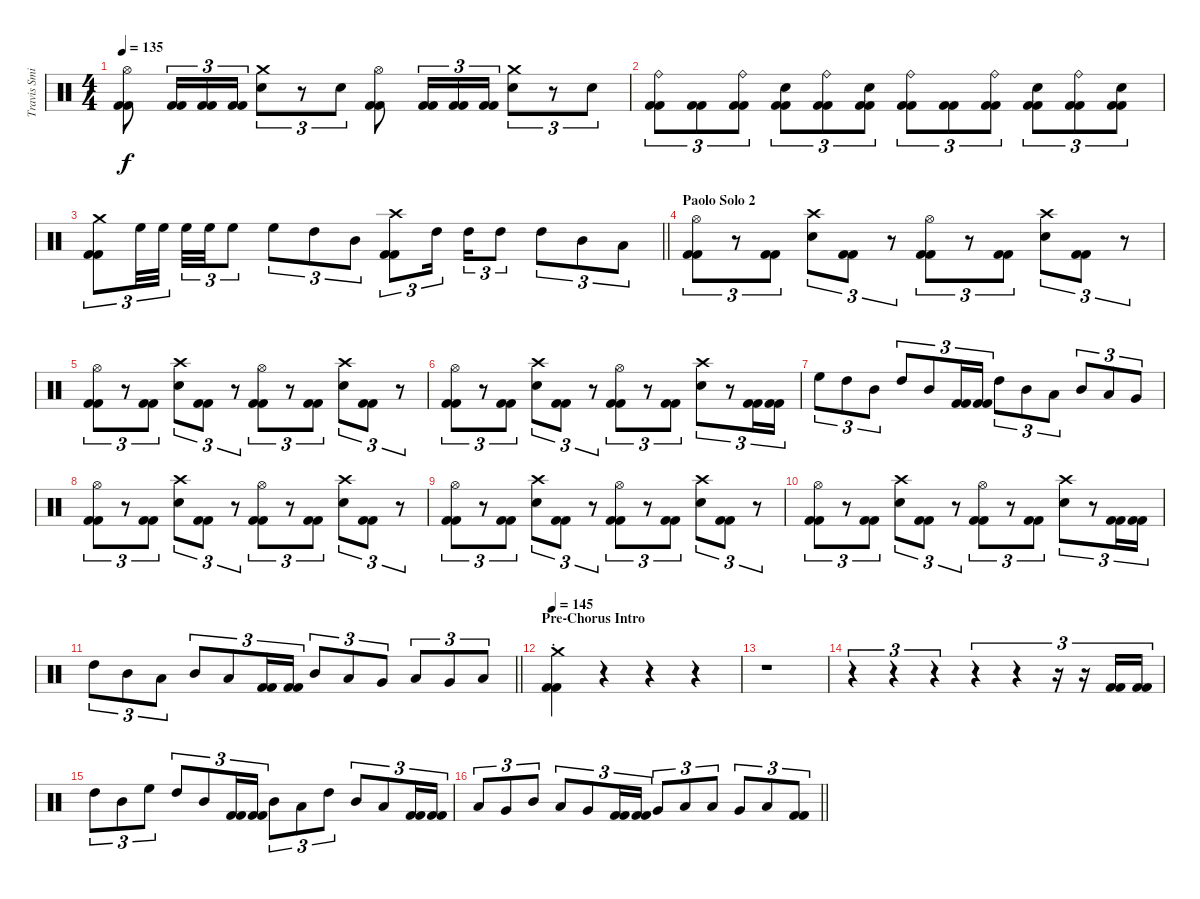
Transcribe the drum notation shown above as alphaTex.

\track ("Travis Smith" "Travis Smi") {instrument percussion}
\staff {score}
\articulation defaults
\ts (4 4)
\tempo 135
\clef neutral
\ks c
("Hi-Hat (open)" "Kick (hit) 2" "Kick (hit) 2").8{dy f} ("Kick (hit) 2" "Kick (hit) 2").16{tu (3 2)} ("Kick (hit) 2" "Kick (hit) 2").16{tu (3 2)} ("Kick (hit) 2" "Kick (hit) 2").16{tu (3 2)} ("Crash medium (hit)" "Electric Snare (hit)").8{tu (3 2)} r.8{tu (3 2)} "Electric Snare (hit)".8{tu (3 2)} ("Hi-Hat (open)" "Kick (hit) 2" "Kick (hit) 2").8 ("Kick (hit) 2" "Kick (hit) 2").16{tu (3 2)} ("Kick (hit) 2" "Kick (hit) 2").16{tu (3 2)} ("Kick (hit) 2" "Kick (hit) 2").16{tu (3 2)} ("Crash medium (hit)" "Electric Snare (hit)").8{tu (3 2)} r.8{tu (3 2)} "Electric Snare (hit)".8{tu (3 2)} |
("Ride (bell)" "Kick (hit) 2" "Kick (hit) 2").8{tu (3 2)} ("Kick (hit) 2" "Kick (hit) 2").8{tu (3 2)} ("Ride (bell)" "Kick (hit) 2" "Kick (hit) 2").8{tu (3 2)} ("Electric Snare (hit)" "Kick (hit) 2" "Kick (hit) 2").8{tu (3 2)} ("Ride (bell)" "Kick (hit) 2" "Kick (hit) 2").8{tu (3 2)} ("Electric Snare (hit)" "Kick (hit) 2" "Kick (hit) 2").8{tu (3 2)} ("Ride (bell)" "Kick (hit) 2" "Kick (hit) 2").8{tu (3 2)} ("Kick (hit) 2" "Kick (hit) 2").8{tu (3 2)} ("Ride (bell)" "Kick (hit) 2" "Kick (hit) 2").8{tu (3 2)} ("Electric Snare (hit)" "Kick (hit) 2" "Kick (hit) 2").8{tu (3 2)} ("Ride (bell)" "Kick (hit) 2" "Kick (hit) 2").8{tu (3 2)} ("Electric Snare (hit)" "Kick (hit) 2" "Kick (hit) 2").8{tu (3 2)} |
\barLineRight lightlight
("Crash medium (hit)" "Kick (hit) 2" "Kick (hit) 2").8{tu (3 2)} "High Floor Tom (hit)".32{tu (3 2)} "High Floor Tom (hit)".32{tu (3 2) beam splitsecondary} "High Floor Tom (hit)".32{tu (3 2)} "High Floor Tom (hit)".32{tu (3 2)} "High Floor Tom (hit)".8{tu (3 2)} "High Floor Tom (hit)".8{tu (3 2)} "High Tom (hit)".8{tu (3 2)} "Mid Tom (hit)".8{tu (3 2)} ("Crash high (hit)" "Kick (hit) 2" "Kick (hit) 2").8{tu (3 2)} "High Tom (hit)".16{tu (3 2) beam splitsecondary} "High Tom (hit)".16{tu (3 2)} "High Tom (hit)".8{tu (3 2)} "High Tom (hit)".8{tu (3 2)} "Mid Tom (hit)".8{tu (3 2)} "Low Tom (hit)".8{tu (3 2)} |
\section ("" "Paolo Solo 2")
("Hi-Hat (open)" "Kick (hit) 2" "Kick (hit) 2").8{tu (3 2)} r.8{tu (3 2)} ("Kick (hit) 2" "Kick (hit) 2").8{tu (3 2)} ("Crash high (hit)" "Electric Snare (hit)").8{tu (3 2)} ("Kick (hit) 2" "Kick (hit) 2").8{tu (3 2)} r.8{tu (3 2)} ("Hi-Hat (open)" "Kick (hit) 2" "Kick (hit) 2").8{tu (3 2)} r.8{tu (3 2)} ("Kick (hit) 2" "Kick (hit) 2").8{tu (3 2)} ("Crash high (hit)" "Electric Snare (hit)").8{tu (3 2)} ("Kick (hit) 2" "Kick (hit) 2").8{tu (3 2)} r.8{tu (3 2)} |
("Hi-Hat (open)" "Kick (hit) 2" "Kick (hit) 2").8{tu (3 2)} r.8{tu (3 2)} ("Kick (hit) 2" "Kick (hit) 2").8{tu (3 2)} ("Crash high (hit)" "Electric Snare (hit)").8{tu (3 2)} ("Kick (hit) 2" "Kick (hit) 2").8{tu (3 2)} r.8{tu (3 2)} ("Hi-Hat (open)" "Kick (hit) 2" "Kick (hit) 2").8{tu (3 2)} r.8{tu (3 2)} ("Kick (hit) 2" "Kick (hit) 2").8{tu (3 2)} ("Crash high (hit)" "Electric Snare (hit)").8{tu (3 2)} ("Kick (hit) 2" "Kick (hit) 2").8{tu (3 2)} r.8{tu (3 2)} |
("Hi-Hat (open)" "Kick (hit) 2" "Kick (hit) 2").8{tu (3 2)} r.8{tu (3 2)} ("Kick (hit) 2" "Kick (hit) 2").8{tu (3 2)} ("Crash high (hit)" "Electric Snare (hit)").8{tu (3 2)} ("Kick (hit) 2" "Kick (hit) 2").8{tu (3 2)} r.8{tu (3 2)} ("Hi-Hat (open)" "Kick (hit) 2" "Kick (hit) 2").8{tu (3 2)} r.8{tu (3 2)} ("Kick (hit) 2" "Kick (hit) 2").8{tu (3 2)} ("Crash high (hit)" "Electric Snare (hit)").8{tu (3 2)} r.8{tu (3 2)} ("Kick (hit) 2" "Kick (hit) 2").16{tu (3 2)} ("Kick (hit) 2" "Kick (hit) 2").16{tu (3 2)} |
"High Floor Tom (hit)".8{tu (3 2)} "High Tom (hit)".8{tu (3 2)} "Mid Tom (hit)".8{tu (3 2)} "High Tom (hit)".8{tu (3 2)} "Mid Tom (hit)".8{tu (3 2)} ("Kick (hit) 2" "Kick (hit) 2").16{tu (3 2)} ("Kick (hit) 2" "Kick (hit) 2").16{tu (3 2)} "High Tom (hit)".8{tu (3 2)} "Mid Tom (hit)".8{tu (3 2)} "Low Tom (hit)".8{tu (3 2)} "Mid Tom (hit)".8{tu (3 2)} "Low Tom (hit)".8{tu (3 2)} "Very Low Tom (hit)".8{tu (3 2)} |
("Hi-Hat (open)" "Kick (hit) 2" "Kick (hit) 2").8{tu (3 2)} r.8{tu (3 2)} ("Kick (hit) 2" "Kick (hit) 2").8{tu (3 2)} ("Crash high (hit)" "Electric Snare (hit)").8{tu (3 2)} ("Kick (hit) 2" "Kick (hit) 2").8{tu (3 2)} r.8{tu (3 2)} ("Hi-Hat (open)" "Kick (hit) 2" "Kick (hit) 2").8{tu (3 2)} r.8{tu (3 2)} ("Kick (hit) 2" "Kick (hit) 2").8{tu (3 2)} ("Crash high (hit)" "Electric Snare (hit)").8{tu (3 2)} ("Kick (hit) 2" "Kick (hit) 2").8{tu (3 2)} r.8{tu (3 2)} |
("Hi-Hat (open)" "Kick (hit) 2" "Kick (hit) 2").8{tu (3 2)} r.8{tu (3 2)} ("Kick (hit) 2" "Kick (hit) 2").8{tu (3 2)} ("Crash high (hit)" "Electric Snare (hit)").8{tu (3 2)} ("Kick (hit) 2" "Kick (hit) 2").8{tu (3 2)} r.8{tu (3 2)} ("Hi-Hat (open)" "Kick (hit) 2" "Kick (hit) 2").8{tu (3 2)} r.8{tu (3 2)} ("Kick (hit) 2" "Kick (hit) 2").8{tu (3 2)} ("Crash high (hit)" "Electric Snare (hit)").8{tu (3 2)} ("Kick (hit) 2" "Kick (hit) 2").8{tu (3 2)} r.8{tu (3 2)} |
("Hi-Hat (open)" "Kick (hit) 2" "Kick (hit) 2").8{tu (3 2)} r.8{tu (3 2)} ("Kick (hit) 2" "Kick (hit) 2").8{tu (3 2)} ("Crash high (hit)" "Electric Snare (hit)").8{tu (3 2)} ("Kick (hit) 2" "Kick (hit) 2").8{tu (3 2)} r.8{tu (3 2)} ("Hi-Hat (open)" "Kick (hit) 2" "Kick (hit) 2").8{tu (3 2)} r.8{tu (3 2)} ("Kick (hit) 2" "Kick (hit) 2").8{tu (3 2)} ("Crash high (hit)" "Electric Snare (hit)").8{tu (3 2)} r.8{tu (3 2)} ("Kick (hit) 2" "Kick (hit) 2").16{tu (3 2)} ("Kick (hit) 2" "Kick (hit) 2").16{tu (3 2)} |
\barLineRight lightlight "High Tom (hit)".8{tu (3 2)} "Mid Tom (hit)".8{tu (3 2)} "Low Tom (hit)".8{tu (3 2)} "Mid Tom (hit)".8{tu (3 2)} "Low Tom (hit)".8{tu (3 2)}
("Kick (hit) 2" "Kick (hit) 2").16{tu (3 2)} ("Kick (hit) 2" "Kick (hit) 2").16{tu (3 2)} "Mid Tom (hit)".8{tu (3 2)} "Low Tom (hit)".8{tu (3 2)} "Very Low Tom (hit)".8{tu (3 2)} "Low Tom (hit)".8{tu (3 2)} "Very Low Tom (hit)".8{tu (3 2)} "Low Floor Tom (hit)".8{tu (3 2)} |
\section ("" "Pre-Chorus Intro")
\tempo 145
("Crash medium (hit)"{st} "Kick (hit) 2" "Kick (hit) 2").4 r.4 r.4 r.4 |
r.1 |
r.4{tu (3 2)} r.4{tu (3 2)} r.4{tu (3 2)} r.4{tu (3 2)} r.4{tu (3 2)} r.16{tu (3 2)} r.16{tu (3 2)} ("Kick (hit) 2" "Kick (hit) 2").16{tu (3 2)} ("Kick (hit) 2" "Kick (hit) 2").16{tu (3 2)} |
"High Tom (hit)".8{tu (3 2)} "Mid Tom (hit)".8{tu (3 2)} "High Floor Tom (hit)".8{tu (3 2)} "High Tom (hit)".8{tu (3 2)} "Mid Tom (hit)".8{tu (3 2)} ("Kick (hit) 2" "Kick (hit) 2").16{tu (3 2)} ("Kick (hit) 2" "Kick (hit) 2").16{tu (3 2)} "Mid Tom (hit)".8{tu (3 2)} "Low Tom (hit)".8{tu (3 2)} "High Tom (hit)".8{tu (3 2)} "Mid Tom (hit)".8{tu (3 2)} "Low Tom (hit)".8{tu (3 2)} ("Kick (hit) 2" "Kick (hit) 2").16{tu (3 2)} ("Kick (hit) 2" "Kick (hit) 2").16{tu (3 2)} |
\barLineRight lightlight "Low Tom (hit)".8{tu (3 2)} "Very Low Tom (hit)".8{tu (3 2)} "Mid Tom (hit)".8{tu (3 2)} "Low Tom (hit)".8{tu (3 2)} "Very Low Tom (hit)".8{tu (3 2)}
("Kick (hit) 2" "Kick (hit) 2").16{tu (3 2)} ("Kick (hit) 2" "Kick (hit) 2").16{tu (3 2)} "Very Low Tom (hit)".8{tu (3 2)} "Low Floor Tom (hit)".8{tu (3 2)} "Low Tom (hit)".8{tu (3 2)} "Very Low Tom (hit)".8{tu (3 2)} "Low Floor Tom (hit)".8{tu (3 2)} ("Kick (hit) 2" "Kick (hit) 2").8{tu (3 2)}
